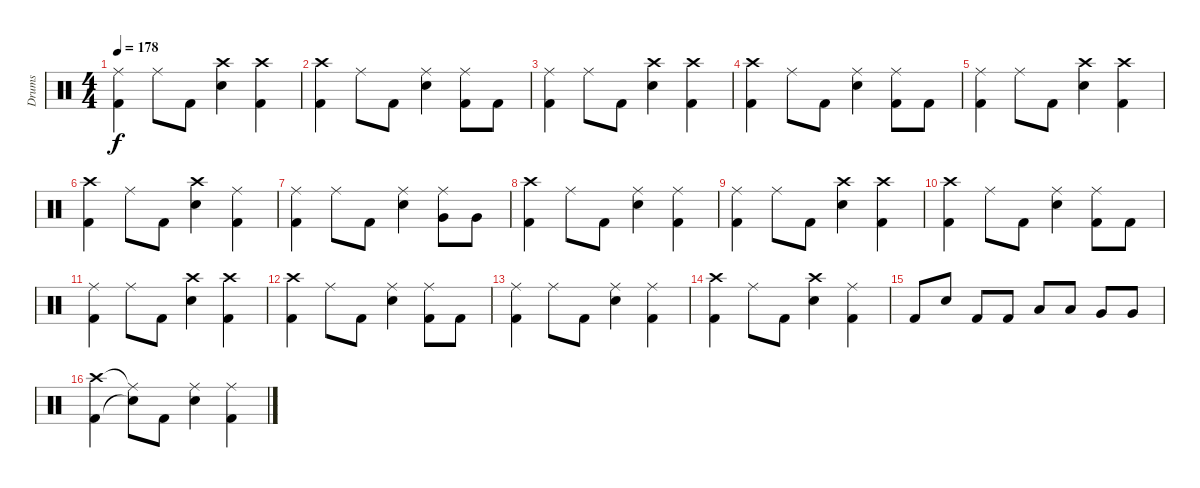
\track ("Drums" "Drums") {instrument percussion}
\staff {score}
\articulation defaults
\ts (4 4)
\tempo 178
\clef neutral
\ks c
("Ride (middle)" "Kick (hit) 2").4{dy f} "Ride (middle)".8 "Kick (hit) 2".8 ("Crash high (hit)" "Electric Snare (hit)").4 ("Crash high (hit)" "Kick (hit) 2").4 |
("Crash high (hit)" "Kick (hit) 2").4 "Ride (middle)".8 "Kick (hit) 2".8 ("Ride (middle)" "Electric Snare (hit)").4 ("Ride (middle)" "Kick (hit) 2").8 "Kick (hit) 2".8 |
("Ride (middle)" "Kick (hit) 2").4 "Ride (middle)".8 "Kick (hit) 2".8 ("Crash high (hit)" "Electric Snare (hit)").4 ("Crash high (hit)" "Kick (hit) 2").4 |
("Crash high (hit)" "Kick (hit) 2").4 "Ride (middle)".8 "Kick (hit) 2".8 ("Ride (middle)" "Electric Snare (hit)").4 ("Ride (middle)" "Kick (hit) 2").8 "Kick (hit) 2".8 |
("Ride (middle)" "Kick (hit) 2").4 "Ride (middle)".8 "Kick (hit) 2".8 ("Crash high (hit)" "Electric Snare (hit)").4 ("Crash high (hit)" "Kick (hit) 2").4 |
("Crash high (hit)" "Kick (hit) 2").4 "Ride (middle)".8 "Kick (hit) 2".8 ("Crash high (hit)" "Electric Snare (hit)").4 ("Ride (middle)" "Kick (hit) 2").4 |
("Ride (middle)" "Kick (hit) 2").4 "Ride (middle)".8 "Kick (hit) 2".8 ("Ride (middle)" "Electric Snare (hit)").4 ("Ride (middle)" "Very Low Tom (hit)").8 "Very Low Tom (hit)".8 |
("Crash high (hit)" "Kick (hit) 2").4 "Ride (middle)".8 "Kick (hit) 2".8 ("Ride (middle)" "Electric Snare (hit)").4 ("Ride (middle)" "Kick (hit) 2").4 |
("Ride (middle)" "Kick (hit) 2").4 "Ride (middle)".8 "Kick (hit) 2".8 ("Crash high (hit)" "Electric Snare (hit)").4 ("Crash high (hit)" "Kick (hit) 2").4 |
("Crash high (hit)" "Kick (hit) 2").4 "Ride (middle)".8 "Kick (hit) 2".8 ("Ride (middle)" "Electric Snare (hit)").4 ("Ride (middle)" "Kick (hit) 2").8 "Kick (hit) 2".8 |
("Ride (middle)" "Kick (hit) 2").4 "Ride (middle)".8 "Kick (hit) 2".8 ("Crash high (hit)" "Electric Snare (hit)").4 ("Crash high (hit)" "Kick (hit) 2").4 |
("Crash high (hit)" "Kick (hit) 2").4 "Ride (middle)".8 "Kick (hit) 2".8 ("Ride (middle)" "Electric Snare (hit)").4 ("Ride (middle)" "Kick (hit) 2").8 "Kick (hit) 2".8 |
("Ride (middle)" "Kick (hit) 2").4 "Ride (middle)".8 "Kick (hit) 2".8 ("Ride (middle)" "Electric Snare (hit)").4 ("Ride (middle)" "Kick (hit) 2").4 |
("Crash high (hit)" "Kick (hit) 2").4 "Ride (middle)".8 "Kick (hit) 2".8 ("Crash high (hit)" "Electric Snare (hit)").4 ("Ride (middle)" "Kick (hit) 2").4 |
"Kick (hit) 2".8 "Electric Snare (hit)".8 "Kick (hit) 2".8 "Kick (hit) 2".8 "Low Tom (hit)".8 "Low Tom (hit)".8 "Very Low Tom (hit)".8 "Very Low Tom (hit)".8 |
("Crash high (hit)" "Kick (hit) 2").4 ("Ride (middle)"{t} "Snare (hit)"{t}).8 "Kick (hit) 2".8 ("Ride (middle)" "Electric Snare (hit)").4 ("Ride (middle)" "Kick (hit) 2").4
